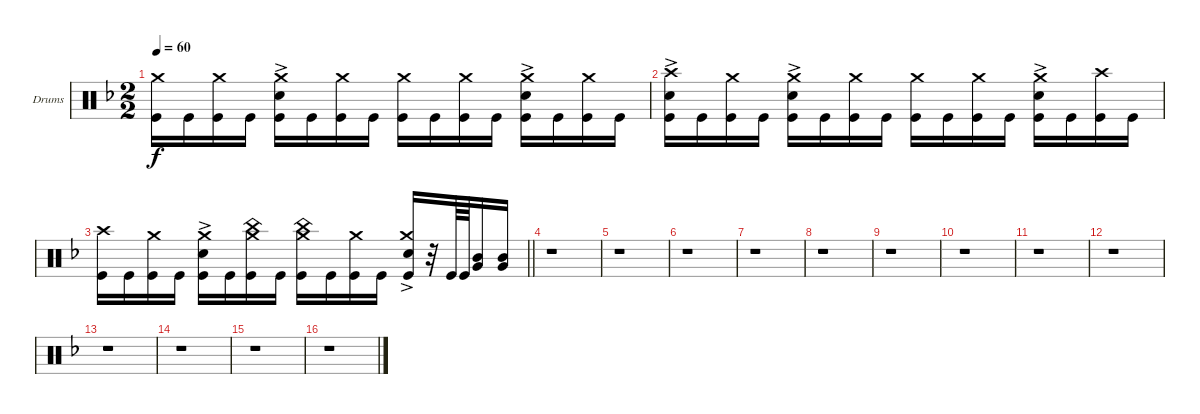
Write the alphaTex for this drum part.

\bracketExtendMode groupsimilarinstruments
\firstSystemTrackNameOrientation horizontal
\otherSystemsTrackNameOrientation horizontal
\track ("Drumkit" "Drums") {instrument percussion}
\staff {score}
\articulation defaults
\ts (2 2)
\tempo 60
\clef neutral
\ks dminor
("Kick (hit)" "Crash medium (hit)").16{dy f} "Kick (hit)".16 ("Kick (hit)" "Crash medium (hit)").16 "Kick (hit)".16 ("Kick (hit)" "Snare (hit) 2"{ac} "Crash medium (hit)").16 "Kick (hit)".16 ("Kick (hit)" "Crash medium (hit)").16 "Kick (hit)".16 ("Kick (hit)" "Crash medium (hit)").16 "Kick (hit)".16 ("Kick (hit)" "Crash medium (hit)").16 "Kick (hit)".16 ("Kick (hit)" "Snare (hit) 2"{ac} "Crash medium (hit)").16 "Kick (hit)".16 ("Kick (hit)" "Crash medium (hit)").16 "Kick (hit)".16 |
("Kick (hit)" "Crash high (hit)" "Snare (hit) 2"{ac}).16 "Kick (hit)".16 ("Kick (hit)" "Crash medium (hit)").16 "Kick (hit)".16 ("Kick (hit)" "Snare (hit) 2"{ac} "Crash medium (hit)").16 "Kick (hit)".16 ("Kick (hit)" "Crash medium (hit)").16 "Kick (hit)".16 ("Kick (hit)" "Crash medium (hit)").16 "Kick (hit)".16 ("Kick (hit)" "Crash medium (hit)").16 "Kick (hit)".16 ("Kick (hit)" "Snare (hit) 2"{ac} "Crash medium (hit)").16 "Kick (hit)".16 ("Kick (hit)" "Crash high (hit)").16 "Kick (hit)".16 |
\barLineRight lightlight
("Kick (hit)" "Crash high (hit)").16 "Kick (hit)".16 ("Kick (hit)" "Crash medium (hit)").16 "Kick (hit)".16 ("Kick (hit)" "Snare (hit) 2"{ac} "Crash medium (hit)").16 "Kick (hit)".16 ("Kick (hit)" "China (hit)" "Crash medium (hit)").16 "Kick (hit)".16 ("Kick (hit)" "Crash medium (hit)" "China (hit)").16 "Kick (hit)".16 ("Kick (hit)" "Crash medium (hit)").16 "Kick (hit)".16 ("Kick (hit)" "Snare (hit) 2"{ac} "Crash medium (hit)").16 r.32 "Kick (hit)".64 "Kick (hit)".64 ("Mid Tom (hit)" "Very Low Tom (hit)").16 ("Mid Tom (hit)" "Very Low Tom (hit)").16 |
r.1 |
r.1 |
r.1 |
r.1 |
r.1 |
r.1 |
r.1 |
r.1 |
r.1 |
r.1 |
r.1 |
r.1 |
r.1
